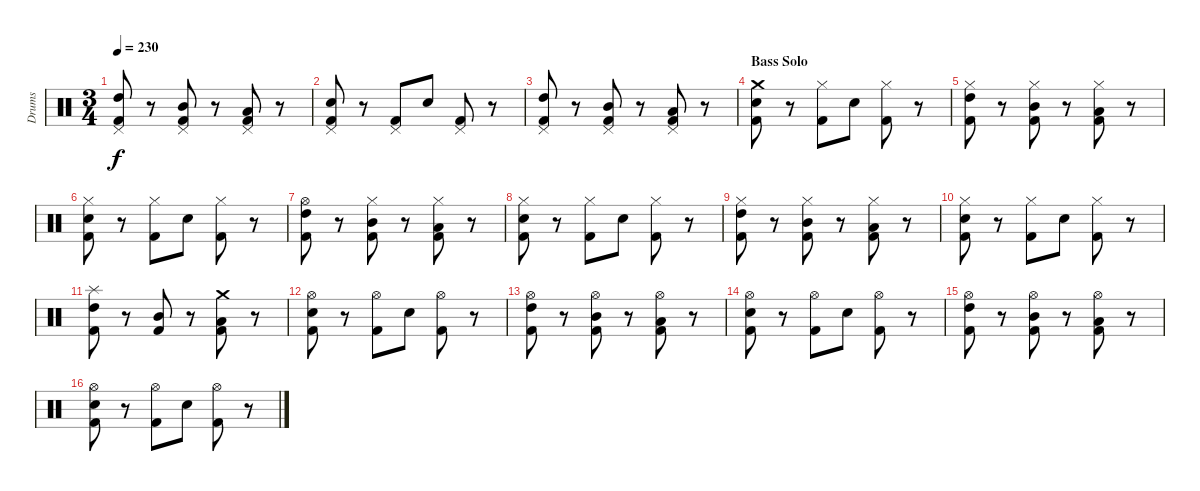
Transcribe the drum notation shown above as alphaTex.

\track ("Drums" "Drums") {instrument percussion}
\staff {score}
\articulation defaults
\ts (3 4)
\tempo 230
\clef neutral
\ks c
("High Tom (hit)" "Pedal Hi-Hat (hit)" "Kick (hit) 2").8{dy f} r.8 ("Mid Tom (hit)" "Pedal Hi-Hat (hit)" "Kick (hit) 2").8 r.8 ("Pedal Hi-Hat (hit)" "Low Tom (hit)" "Kick (hit) 2").8 r.8 |
("Pedal Hi-Hat (hit)" "Electric Snare (hit)" "Kick (hit) 2").8 r.8 ("Pedal Hi-Hat (hit)" "Kick (hit) 2").8 "Electric Snare (hit)".8 ("Pedal Hi-Hat (hit)" "Kick (hit) 2").8 r.8 |
("High Tom (hit)" "Pedal Hi-Hat (hit)" "Kick (hit) 2").8 r.8 ("Mid Tom (hit)" "Pedal Hi-Hat (hit)" "Kick (hit) 2").8 r.8 ("Pedal Hi-Hat (hit)" "Low Tom (hit)" "Kick (hit) 2").8 r.8 |
\section ("" "Bass Solo")
("Crash medium (hit)" "Electric Snare (hit)" "Kick (hit) 2").8 r.8 ("Hi-Hat (closed)" "Kick (hit) 2").8 "Electric Snare (hit)".8 ("Hi-Hat (closed)" "Kick (hit) 2").8 r.8 |
("High Tom (hit)" "Hi-Hat (closed)" "Kick (hit) 2").8 r.8 ("Mid Tom (hit)" "Hi-Hat (closed)" "Kick (hit) 2").8 r.8 ("Hi-Hat (closed)" "Low Tom (hit)" "Kick (hit) 2").8 r.8 |
("Hi-Hat (closed)" "Electric Snare (hit)" "Kick (hit) 2").8 r.8 ("Hi-Hat (closed)" "Kick (hit) 2").8 "Electric Snare (hit)".8 ("Hi-Hat (closed)" "Kick (hit) 2").8 r.8 |
("High Tom (hit)" "Hi-Hat (open)" "Kick (hit) 2").8 r.8 ("Mid Tom (hit)" "Hi-Hat (closed)" "Kick (hit) 2").8 r.8 ("Hi-Hat (closed)" "Low Tom (hit)" "Kick (hit) 2").8 r.8 |
("Hi-Hat (closed)" "Electric Snare (hit)" "Kick (hit) 2").8 r.8 ("Hi-Hat (closed)" "Kick (hit) 2").8 "Electric Snare (hit)".8 ("Hi-Hat (closed)" "Kick (hit) 2").8 r.8 |
("High Tom (hit)" "Hi-Hat (closed)" "Kick (hit) 2").8 r.8 ("Mid Tom (hit)" "Hi-Hat (closed)" "Kick (hit) 2").8 r.8 ("Hi-Hat (closed)" "Low Tom (hit)" "Kick (hit) 2").8 r.8 |
("Hi-Hat (closed)" "Electric Snare (hit)" "Kick (hit) 2").8 r.8 ("Hi-Hat (closed)" "Kick (hit) 2").8 "Electric Snare (hit)".8 ("Hi-Hat (closed)" "Kick (hit) 2").8 r.8 |
("Splash (hit)" "High Tom (hit)" "Kick (hit) 2").8 r.8 ("Mid Tom (hit)" "Kick (hit) 2").8 r.8 ("Crash medium (hit)" "Low Tom (hit)" "Kick (hit) 2").8 r.8 |
("Hi-Hat (open)" "Electric Snare (hit)" "Kick (hit) 2").8 r.8 ("Hi-Hat (open)" "Kick (hit) 2").8 "Electric Snare (hit)".8 ("Hi-Hat (open)" "Kick (hit) 2").8 r.8 |
("High Tom (hit)" "Hi-Hat (open)" "Kick (hit) 2").8 r.8 ("Mid Tom (hit)" "Hi-Hat (open)" "Kick (hit) 2").8 r.8 ("Hi-Hat (open)" "Low Tom (hit)" "Kick (hit) 2").8 r.8 |
("Hi-Hat (open)" "Electric Snare (hit)" "Kick (hit) 2").8 r.8 ("Hi-Hat (open)" "Kick (hit) 2").8 "Electric Snare (hit)".8 ("Hi-Hat (open)" "Kick (hit) 2").8 r.8 |
("High Tom (hit)" "Hi-Hat (open)" "Kick (hit) 2").8 r.8 ("Mid Tom (hit)" "Hi-Hat (open)" "Kick (hit) 2").8 r.8 ("Hi-Hat (open)" "Low Tom (hit)" "Kick (hit) 2").8 r.8 |
("Hi-Hat (open)" "Electric Snare (hit)" "Kick (hit) 2").8 r.8 ("Hi-Hat (open)" "Kick (hit) 2").8 "Electric Snare (hit)".8 ("Hi-Hat (open)" "Kick (hit) 2").8 r.8
